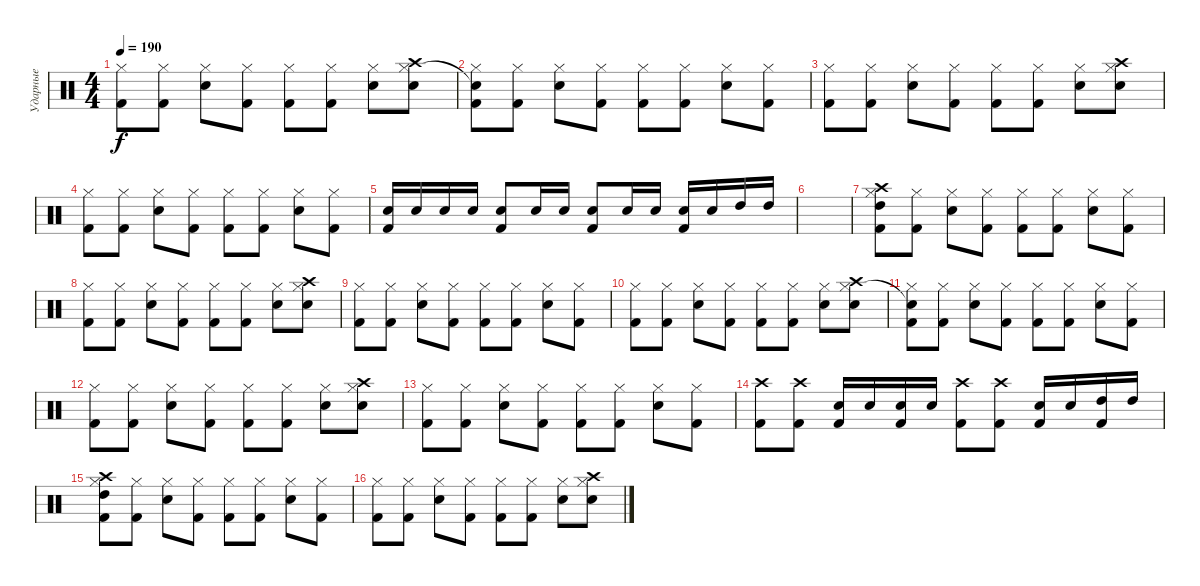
\track ("Ударные" "Ударные") {instrument percussion}
\staff {score}
\articulation defaults
\ts (4 4)
\tempo 190
\clef neutral
\ks c
("Hi-Hat (closed)" "Kick (hit) 2").8{dy f} ("Hi-Hat (closed)" "Kick (hit) 2").8 ("Hi-Hat (closed)" "Electric Snare (hit)").8 ("Hi-Hat (closed)" "Kick (hit) 2").8 ("Hi-Hat (closed)" "Kick (hit) 2").8 ("Hi-Hat (closed)" "Kick (hit) 2").8 ("Hi-Hat (closed)" "Electric Snare (hit)").8 ("Hi-Hat (closed)" "Crash high (hit)" "Electric Snare (hit)").8 |
("Snare (hit)"{t} "Hi-Hat (closed)" "Kick (hit) 2").8 ("Hi-Hat (closed)" "Kick (hit) 2").8 ("Hi-Hat (closed)" "Electric Snare (hit)").8 ("Hi-Hat (closed)" "Kick (hit) 2").8 ("Hi-Hat (closed)" "Kick (hit) 2").8 ("Hi-Hat (closed)" "Kick (hit) 2").8 ("Hi-Hat (closed)" "Electric Snare (hit)").8 ("Hi-Hat (closed)" "Kick (hit) 2").8 |
("Hi-Hat (closed)" "Kick (hit) 2").8 ("Hi-Hat (closed)" "Kick (hit) 2").8 ("Hi-Hat (closed)" "Electric Snare (hit)").8 ("Hi-Hat (closed)" "Kick (hit) 2").8 ("Hi-Hat (closed)" "Kick (hit) 2").8 ("Hi-Hat (closed)" "Kick (hit) 2").8 ("Hi-Hat (closed)" "Electric Snare (hit)").8 ("Hi-Hat (closed)" "Crash high (hit)" "Electric Snare (hit)").8 |
("Hi-Hat (closed)" "Kick (hit) 2").8 ("Hi-Hat (closed)" "Kick (hit) 2").8 ("Hi-Hat (closed)" "Electric Snare (hit)").8 ("Hi-Hat (closed)" "Kick (hit) 2").8 ("Hi-Hat (closed)" "Kick (hit) 2").8 ("Hi-Hat (closed)" "Kick (hit) 2").8 ("Hi-Hat (closed)" "Electric Snare (hit)").8 ("Hi-Hat (closed)" "Kick (hit) 2").8 |
("Electric Snare (hit)" "Kick (hit) 2").16 "Electric Snare (hit)".16 "Electric Snare (hit)".16 "Electric Snare (hit)".16 ("Electric Snare (hit)" "Kick (hit) 2").8 "Electric Snare (hit)".16 "Electric Snare (hit)".16 ("Electric Snare (hit)" "Kick (hit) 2").8 "Electric Snare (hit)".16 "Electric Snare (hit)".16 ("Electric Snare (hit)" "Kick (hit) 2").16 "Electric Snare (hit)".16 "High Tom (hit)".16 "High Tom (hit)".16 |
|
("High Tom (hit)" "Hi-Hat (closed)" "Crash high (hit)" "Kick (hit) 2").8 ("Hi-Hat (closed)" "Kick (hit) 2").8 ("Hi-Hat (closed)" "Electric Snare (hit)").8 ("Hi-Hat (closed)" "Kick (hit) 2").8 ("Hi-Hat (closed)" "Kick (hit) 2").8 ("Hi-Hat (closed)" "Kick (hit) 2").8 ("Hi-Hat (closed)" "Electric Snare (hit)").8 ("Hi-Hat (closed)" "Kick (hit) 2").8 |
("Hi-Hat (closed)" "Kick (hit) 2").8 ("Hi-Hat (closed)" "Kick (hit) 2").8 ("Hi-Hat (closed)" "Electric Snare (hit)").8 ("Hi-Hat (closed)" "Kick (hit) 2").8 ("Hi-Hat (closed)" "Kick (hit) 2").8 ("Hi-Hat (closed)" "Kick (hit) 2").8 ("Hi-Hat (closed)" "Electric Snare (hit)").8 ("Hi-Hat (closed)" "Crash high (hit)" "Electric Snare (hit)").8 |
("Hi-Hat (closed)" "Kick (hit) 2").8 ("Hi-Hat (closed)" "Kick (hit) 2").8 ("Hi-Hat (closed)" "Electric Snare (hit)").8 ("Hi-Hat (closed)" "Kick (hit) 2").8 ("Hi-Hat (closed)" "Kick (hit) 2").8 ("Hi-Hat (closed)" "Kick (hit) 2").8 ("Hi-Hat (closed)" "Electric Snare (hit)").8 ("Hi-Hat (closed)" "Kick (hit) 2").8 |
("Hi-Hat (closed)" "Kick (hit) 2").8 ("Hi-Hat (closed)" "Kick (hit) 2").8 ("Hi-Hat (closed)" "Electric Snare (hit)").8 ("Hi-Hat (closed)" "Kick (hit) 2").8 ("Hi-Hat (closed)" "Kick (hit) 2").8 ("Hi-Hat (closed)" "Kick (hit) 2").8 ("Hi-Hat (closed)" "Electric Snare (hit)").8 ("Hi-Hat (closed)" "Crash high (hit)" "Electric Snare (hit)").8 |
("Snare (hit)"{t} "Hi-Hat (closed)" "Kick (hit) 2").8 ("Hi-Hat (closed)" "Kick (hit) 2").8 ("Hi-Hat (closed)" "Electric Snare (hit)").8 ("Hi-Hat (closed)" "Kick (hit) 2").8 ("Hi-Hat (closed)" "Kick (hit) 2").8 ("Hi-Hat (closed)" "Kick (hit) 2").8 ("Hi-Hat (closed)" "Electric Snare (hit)").8 ("Hi-Hat (closed)" "Kick (hit) 2").8 |
("Hi-Hat (closed)" "Kick (hit) 2").8 ("Hi-Hat (closed)" "Kick (hit) 2").8 ("Hi-Hat (closed)" "Electric Snare (hit)").8 ("Hi-Hat (closed)" "Kick (hit) 2").8 ("Hi-Hat (closed)" "Kick (hit) 2").8 ("Hi-Hat (closed)" "Kick (hit) 2").8 ("Hi-Hat (closed)" "Electric Snare (hit)").8 ("Hi-Hat (closed)" "Crash high (hit)" "Electric Snare (hit)").8 |
("Hi-Hat (closed)" "Kick (hit) 2").8 ("Hi-Hat (closed)" "Kick (hit) 2").8 ("Hi-Hat (closed)" "Electric Snare (hit)").8 ("Hi-Hat (closed)" "Kick (hit) 2").8 ("Hi-Hat (closed)" "Kick (hit) 2").8 ("Hi-Hat (closed)" "Kick (hit) 2").8 ("Hi-Hat (closed)" "Electric Snare (hit)").8 ("Hi-Hat (closed)" "Kick (hit) 2").8 |
("Crash high (hit)" "Kick (hit) 2").8 ("Crash high (hit)" "Kick (hit) 2").8 ("Electric Snare (hit)" "Kick (hit) 2").16 "Electric Snare (hit)".16 ("Electric Snare (hit)" "Kick (hit) 2").16 "Electric Snare (hit)".16 ("Crash high (hit)" "Kick (hit) 2").8 ("Crash high (hit)" "Kick (hit) 2").8 ("Electric Snare (hit)" "Kick (hit) 2").16 "Electric Snare (hit)".16 ("High Tom (hit)" "Kick (hit) 2").16 "High Tom (hit)".16 |
("High Tom (hit)" "Hi-Hat (closed)" "Crash high (hit)" "Kick (hit) 2").8 ("Hi-Hat (closed)" "Kick (hit) 2").8 ("Hi-Hat (closed)" "Electric Snare (hit)").8 ("Hi-Hat (closed)" "Kick (hit) 2").8 ("Hi-Hat (closed)" "Kick (hit) 2").8 ("Hi-Hat (closed)" "Kick (hit) 2").8 ("Hi-Hat (closed)" "Electric Snare (hit)").8 ("Hi-Hat (closed)" "Kick (hit) 2").8 |
("Hi-Hat (closed)" "Kick (hit) 2").8 ("Hi-Hat (closed)" "Kick (hit) 2").8 ("Hi-Hat (closed)" "Electric Snare (hit)").8 ("Hi-Hat (closed)" "Kick (hit) 2").8 ("Hi-Hat (closed)" "Kick (hit) 2").8 ("Hi-Hat (closed)" "Kick (hit) 2").8 ("Hi-Hat (closed)" "Electric Snare (hit)").8 ("Hi-Hat (closed)" "Crash high (hit)" "Electric Snare (hit)").8
